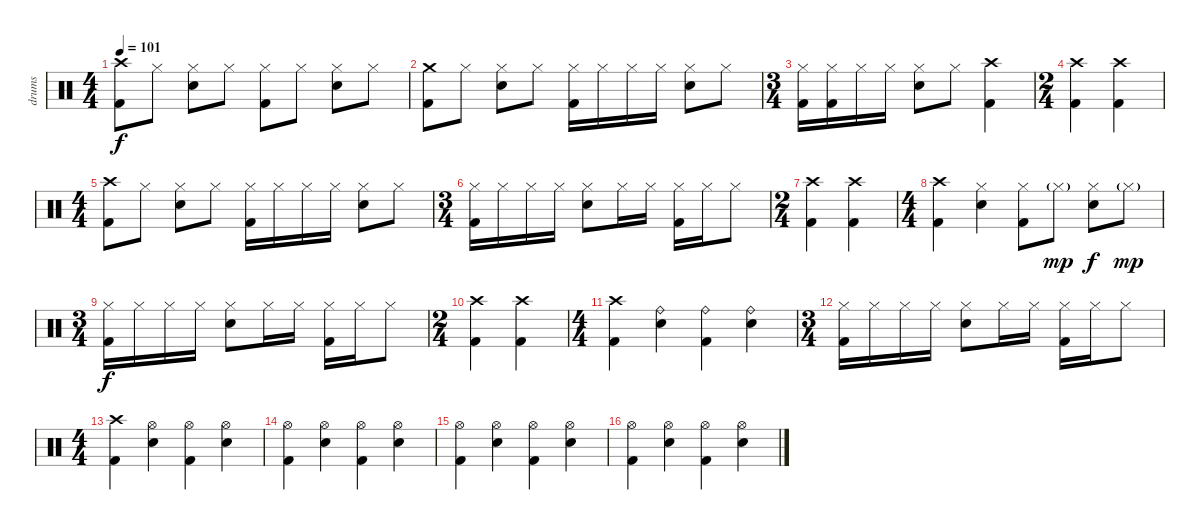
\track ("drums" "drums") {instrument percussion}
\staff {score}
\articulation defaults
\ts (4 4)
\tempo 101
\clef neutral
\ks c
("Crash high (hit)" "Kick (hit) 2").8{dy f} "Hi-Hat (closed)".8 ("Hi-Hat (closed)" "Electric Snare (hit)").8 "Hi-Hat (closed)".8 ("Hi-Hat (closed)" "Kick (hit) 2").8 "Hi-Hat (closed)".8 ("Hi-Hat (closed)" "Electric Snare (hit)").8 "Hi-Hat (closed)".8 |
("Crash medium (hit)" "Kick (hit) 2").8 "Hi-Hat (closed)".8 ("Hi-Hat (closed)" "Electric Snare (hit)").8 "Hi-Hat (closed)".8 ("Hi-Hat (closed)" "Kick (hit) 2").16 "Hi-Hat (closed)".16 "Hi-Hat (closed)".16 "Hi-Hat (closed)".16 ("Hi-Hat (closed)" "Electric Snare (hit)").8 "Hi-Hat (closed)".8 |
\ts (3 4)
("Hi-Hat (closed)" "Kick (hit) 2").16 ("Hi-Hat (closed)" "Kick (hit) 2").16 "Hi-Hat (closed)".16 "Hi-Hat (closed)".16 ("Hi-Hat (closed)" "Electric Snare (hit)").8 "Hi-Hat (closed)".8 ("Crash high (hit)" "Kick (hit) 2").4 |
\ts (2 4)
("Crash high (hit)" "Kick (hit) 2").4 ("Crash high (hit)" "Kick (hit) 2").4 |
\ts (4 4)
("Crash high (hit)" "Kick (hit) 2").8 "Hi-Hat (closed)".8 ("Hi-Hat (closed)" "Electric Snare (hit)").8 "Hi-Hat (closed)".8 ("Hi-Hat (closed)" "Kick (hit) 2").16 "Hi-Hat (closed)".16 "Hi-Hat (closed)".16 "Hi-Hat (closed)".16 ("Hi-Hat (closed)" "Electric Snare (hit)").8 "Hi-Hat (closed)".8 |
\ts (3 4)
("Hi-Hat (closed)" "Kick (hit) 2").16 "Hi-Hat (closed)".16 "Hi-Hat (closed)".16 "Hi-Hat (closed)".16 ("Hi-Hat (closed)" "Electric Snare (hit)").8 "Hi-Hat (closed)".16 "Hi-Hat (closed)".16 ("Hi-Hat (closed)" "Kick (hit) 2").16 "Hi-Hat (closed)".16 "Hi-Hat (closed)".8 |
\ts (2 4)
("Crash high (hit)" "Kick (hit) 2").4 ("Crash high (hit)" "Kick (hit) 2").4 |
\ts (4 4)
("Crash high (hit)" "Kick (hit) 2").4 ("Hi-Hat (closed)" "Electric Snare (hit)").4 ("Hi-Hat (closed)" "Kick (hit) 2").8 "Hi-Hat (closed)"{g}.8{dy mp} ("Hi-Hat (closed)" "Electric Snare (hit)").8{dy f} "Hi-Hat (closed)"{g}.8{dy mp} |
\ts (3 4)
("Hi-Hat (closed)" "Kick (hit) 2").16{dy f} "Hi-Hat (closed)".16 "Hi-Hat (closed)".16 "Hi-Hat (closed)".16 ("Hi-Hat (closed)" "Electric Snare (hit)").8 "Hi-Hat (closed)".16 "Hi-Hat (closed)".16 ("Hi-Hat (closed)" "Kick (hit) 2").16 "Hi-Hat (closed)".16 "Hi-Hat (closed)".8 |
\ts (2 4)
("Crash high (hit)" "Kick (hit) 2").4 ("Crash high (hit)" "Kick (hit) 2").4 |
\ts (4 4)
("Crash high (hit)" "Kick (hit) 2").4 ("Ride (bell)" "Electric Snare (hit)").4 ("Ride (bell)" "Kick (hit) 2").4 ("Ride (bell)" "Electric Snare (hit)").4 |
\ts (3 4)
("Hi-Hat (closed)" "Kick (hit) 2").16 "Hi-Hat (closed)".16 "Hi-Hat (closed)".16 "Hi-Hat (closed)".16 ("Hi-Hat (closed)" "Electric Snare (hit)").8 "Hi-Hat (closed)".16 "Hi-Hat (closed)".16 ("Hi-Hat (closed)" "Kick (hit) 2").16 "Hi-Hat (closed)".16 "Hi-Hat (closed)".8 |
\ts (4 4)
("Crash high (hit)" "Kick (hit) 2").4 ("Hi-Hat (open)" "Electric Snare (hit)").4 ("Hi-Hat (open)" "Kick (hit) 2").4 ("Hi-Hat (open)" "Electric Snare (hit)").4 |
("Hi-Hat (open)" "Kick (hit) 2").4 ("Hi-Hat (open)" "Electric Snare (hit)").4 ("Hi-Hat (open)" "Kick (hit) 2").4 ("Hi-Hat (open)" "Electric Snare (hit)").4 |
("Hi-Hat (open)" "Kick (hit) 2").4 ("Hi-Hat (open)" "Electric Snare (hit)").4 ("Hi-Hat (open)" "Kick (hit) 2").4 ("Hi-Hat (open)" "Electric Snare (hit)").4 |
("Hi-Hat (open)" "Kick (hit) 2").4 ("Hi-Hat (open)" "Electric Snare (hit)").4 ("Hi-Hat (open)" "Kick (hit) 2").4 ("Hi-Hat (open)" "Electric Snare (hit)").4
